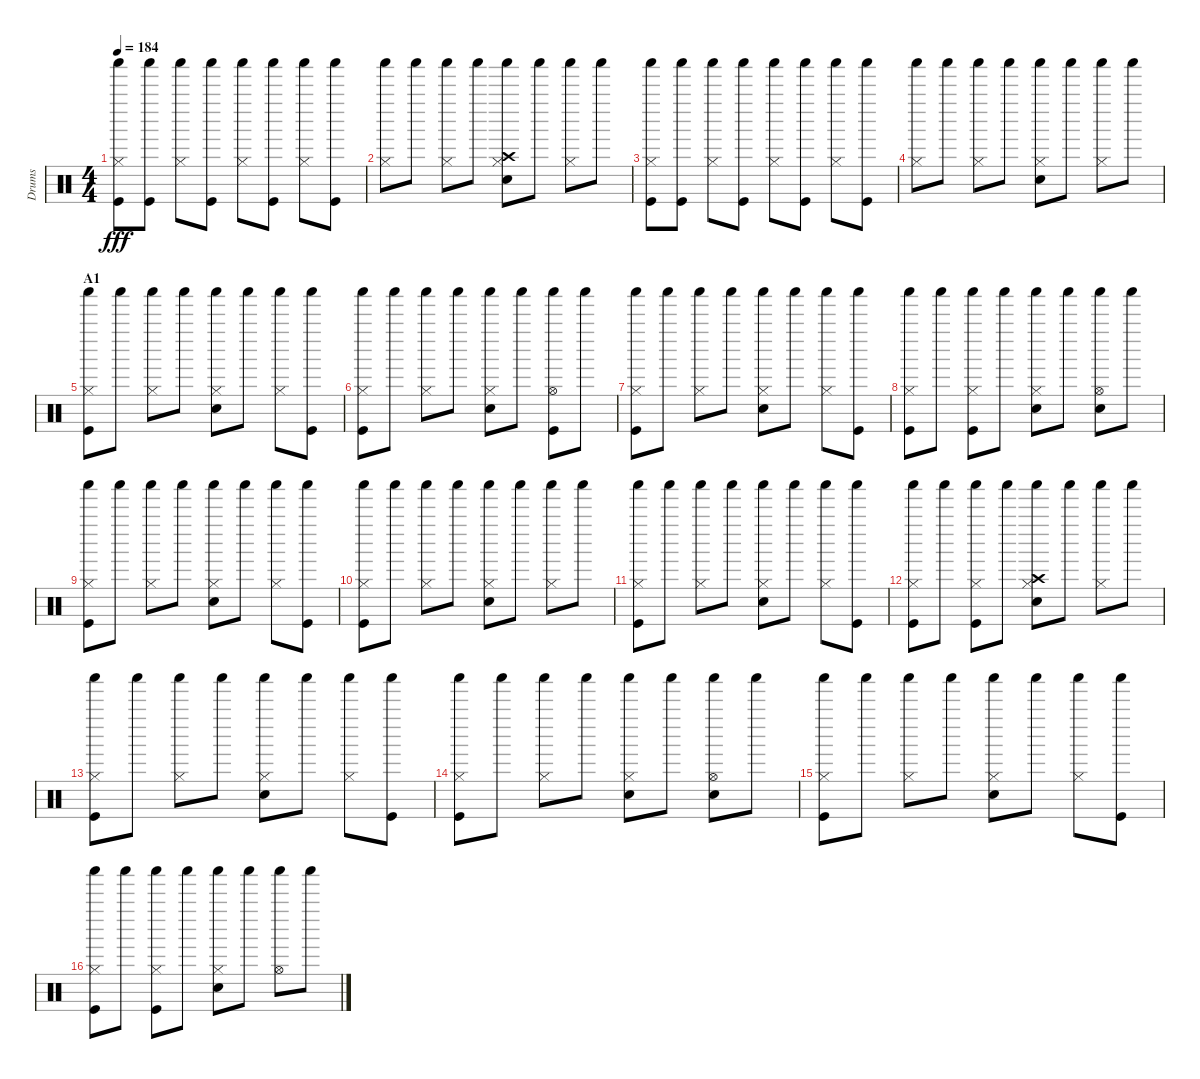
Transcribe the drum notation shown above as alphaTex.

\track ("Drums" "Drums") {instrument percussion}
\staff {score}
\articulation defaults
\ts (4 4)
\tempo 184
\clef neutral
\ks c
("Hi-Hat (closed)" "Shaker (hit)" "Kick (hit)").8{dy fff} ("Shaker (hit)" "Kick (hit)").8 ("Hi-Hat (closed)" "Shaker (hit)").8 ("Shaker (hit)" "Kick (hit)").8 ("Hi-Hat (closed)" "Shaker (hit)").8 ("Shaker (hit)" "Kick (hit)").8 ("Hi-Hat (closed)" "Shaker (hit)").8 ("Shaker (hit)" "Kick (hit)").8 |
("Hi-Hat (closed)" "Shaker (hit)").8 "Shaker (hit)".8 ("Hi-Hat (closed)" "Shaker (hit)").8 "Shaker (hit)".8 ("Hi-Hat (closed)" "Crash high (hit)" "Shaker (hit)" "Snare (hit) 2").8 "Shaker (hit)".8 ("Hi-Hat (closed)" "Shaker (hit)").8 "Shaker (hit)".8 |
("Hi-Hat (closed)" "Shaker (hit)" "Kick (hit)").8 ("Shaker (hit)" "Kick (hit)").8 ("Hi-Hat (closed)" "Shaker (hit)").8 ("Shaker (hit)" "Kick (hit)").8 ("Hi-Hat (closed)" "Shaker (hit)").8 ("Shaker (hit)" "Kick (hit)").8 ("Hi-Hat (closed)" "Shaker (hit)").8 ("Shaker (hit)" "Kick (hit)").8 |
("Hi-Hat (closed)" "Shaker (hit)").8 "Shaker (hit)".8 ("Hi-Hat (closed)" "Shaker (hit)").8 "Shaker (hit)".8 ("Hi-Hat (closed)" "Shaker (hit)" "Snare (hit) 2").8 "Shaker (hit)".8 ("Hi-Hat (closed)" "Shaker (hit)").8 "Shaker (hit)".8 |
\section ("" "A1")
("Hi-Hat (closed)" "Shaker (hit)" "Kick (hit)").8 "Shaker (hit)".8 ("Hi-Hat (closed)" "Shaker (hit)").8 "Shaker (hit)".8 ("Hi-Hat (closed)" "Shaker (hit)" "Snare (hit) 2").8 "Shaker (hit)".8 ("Hi-Hat (closed)" "Shaker (hit)").8 ("Shaker (hit)" "Kick (hit)").8 |
("Hi-Hat (closed)" "Shaker (hit)" "Kick (hit)").8 "Shaker (hit)".8 ("Hi-Hat (closed)" "Shaker (hit)").8 "Shaker (hit)".8 ("Hi-Hat (closed)" "Shaker (hit)" "Snare (hit) 2").8 "Shaker (hit)".8 ("Hi-Hat (open)" "Shaker (hit)" "Kick (hit)").8 "Shaker (hit)".8 |
("Hi-Hat (closed)" "Shaker (hit)" "Kick (hit)").8 "Shaker (hit)".8 ("Hi-Hat (closed)" "Shaker (hit)").8 "Shaker (hit)".8 ("Hi-Hat (closed)" "Shaker (hit)" "Snare (hit) 2").8 "Shaker (hit)".8 ("Hi-Hat (closed)" "Shaker (hit)").8 ("Shaker (hit)" "Kick (hit)").8 |
("Hi-Hat (closed)" "Shaker (hit)" "Kick (hit)").8 "Shaker (hit)".8 ("Hi-Hat (closed)" "Shaker (hit)" "Kick (hit)").8 "Shaker (hit)".8 ("Hi-Hat (closed)" "Shaker (hit)" "Snare (hit) 2").8 "Shaker (hit)".8 ("Hi-Hat (open)" "Shaker (hit)" "Snare (hit) 2").8 "Shaker (hit)".8 |
("Hi-Hat (closed)" "Shaker (hit)" "Kick (hit)").8 "Shaker (hit)".8 ("Hi-Hat (closed)" "Shaker (hit)").8 "Shaker (hit)".8 ("Hi-Hat (closed)" "Shaker (hit)" "Snare (hit) 2").8 "Shaker (hit)".8 ("Hi-Hat (closed)" "Shaker (hit)").8 ("Shaker (hit)" "Kick (hit)").8 |
("Hi-Hat (closed)" "Shaker (hit)" "Kick (hit)").8 "Shaker (hit)".8 ("Hi-Hat (closed)" "Shaker (hit)").8 "Shaker (hit)".8 ("Hi-Hat (closed)" "Shaker (hit)" "Snare (hit) 2").8 "Shaker (hit)".8 ("Hi-Hat (closed)" "Shaker (hit)").8 "Shaker (hit)".8 |
("Hi-Hat (closed)" "Shaker (hit)" "Kick (hit)").8 "Shaker (hit)".8 ("Hi-Hat (closed)" "Shaker (hit)").8 "Shaker (hit)".8 ("Hi-Hat (closed)" "Shaker (hit)" "Snare (hit) 2").8 "Shaker (hit)".8 ("Hi-Hat (closed)" "Shaker (hit)").8 ("Shaker (hit)" "Kick (hit)").8 |
("Hi-Hat (closed)" "Shaker (hit)" "Kick (hit)").8 "Shaker (hit)".8 ("Hi-Hat (closed)" "Shaker (hit)" "Kick (hit)").8 "Shaker (hit)".8 ("Hi-Hat (closed)" "Shaker (hit)" "Crash high (hit)" "Snare (hit) 2").8 "Shaker (hit)".8 ("Hi-Hat (closed)" "Shaker (hit)").8 "Shaker (hit)".8 |
("Hi-Hat (closed)" "Shaker (hit)" "Kick (hit)").8 "Shaker (hit)".8 ("Hi-Hat (closed)" "Shaker (hit)").8 "Shaker (hit)".8 ("Hi-Hat (closed)" "Shaker (hit)" "Snare (hit) 2").8 "Shaker (hit)".8 ("Hi-Hat (closed)" "Shaker (hit)").8 ("Shaker (hit)" "Kick (hit)").8 |
("Hi-Hat (closed)" "Shaker (hit)" "Kick (hit)").8 "Shaker (hit)".8 ("Hi-Hat (closed)" "Shaker (hit)").8 "Shaker (hit)".8 ("Hi-Hat (closed)" "Shaker (hit)" "Snare (hit) 2").8 "Shaker (hit)".8 ("Hi-Hat (open)" "Shaker (hit)" "Snare (hit) 2").8 "Shaker (hit)".8 |
("Hi-Hat (closed)" "Shaker (hit)" "Kick (hit)").8 "Shaker (hit)".8 ("Hi-Hat (closed)" "Shaker (hit)").8 "Shaker (hit)".8 ("Hi-Hat (closed)" "Shaker (hit)" "Snare (hit) 2").8 "Shaker (hit)".8 ("Hi-Hat (closed)" "Shaker (hit)").8 ("Shaker (hit)" "Kick (hit)").8 |
("Hi-Hat (closed)" "Shaker (hit)" "Kick (hit)").8 "Shaker (hit)".8 ("Hi-Hat (closed)" "Shaker (hit)" "Kick (hit)").8 "Shaker (hit)".8 ("Hi-Hat (closed)" "Shaker (hit)" "Snare (hit) 2").8 "Shaker (hit)".8 ("Hi-Hat (open)" "Shaker (hit)").8 "Shaker (hit)".8
